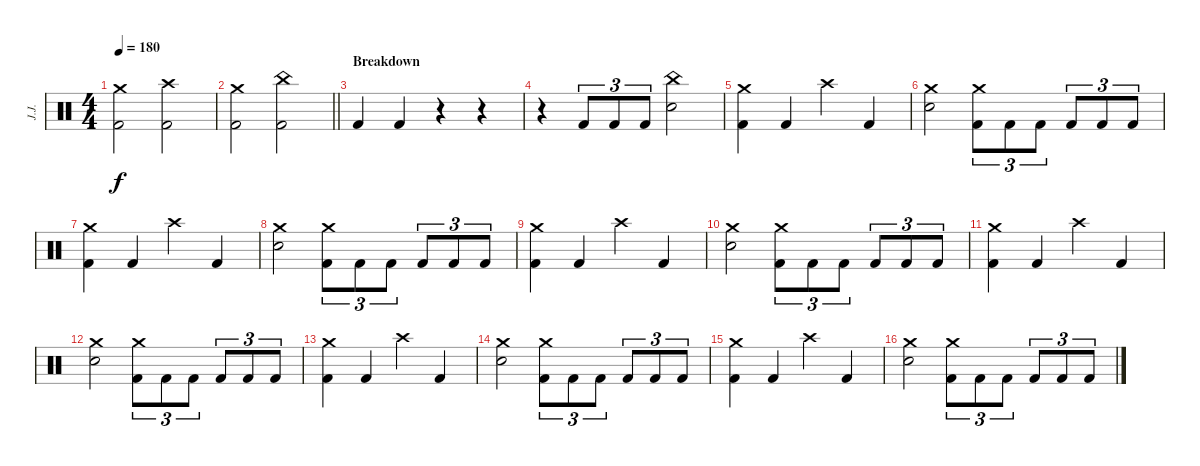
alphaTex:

\track ("J.J." "J.J.") {instrument percussion}
\staff {score}
\articulation defaults
\ts (4 4)
\tempo 180
\clef neutral
\ks c
("Crash medium (hit)" "Kick (hit) 2").2{dy f} ("Crash high (hit)" "Kick (hit) 2").2 |
\barLineRight lightlight
("Crash medium (hit)" "Kick (hit) 2").2 ("China (hit)" "Kick (hit) 2").2 |
\section ("" "Breakdown")
"Kick (hit) 2".4 "Kick (hit) 2".4 r.4 r.4 |
r.4 "Kick (hit) 2".8{tu (3 2)} "Kick (hit) 2".8{tu (3 2)} "Kick (hit) 2".8{tu (3 2)} ("China (hit)" "Electric Snare (hit)").2 |
("Crash medium (hit)" "Kick (hit) 2").4 "Kick (hit) 2".4 "Crash high (hit)".4 "Kick (hit) 2".4 |
("Crash medium (hit)" "Electric Snare (hit)").2 ("Crash medium (hit)" "Kick (hit) 2").8{tu (3 2)} "Kick (hit) 2".8{tu (3 2)} "Kick (hit) 2".8{tu (3 2)} "Kick (hit) 2".8{tu (3 2)} "Kick (hit) 2".8{tu (3 2)} "Kick (hit) 2".8{tu (3 2)} |
("Crash medium (hit)" "Kick (hit) 2").4 "Kick (hit) 2".4 "Crash high (hit)".4 "Kick (hit) 2".4 |
("Crash medium (hit)" "Electric Snare (hit)").2 ("Crash medium (hit)" "Kick (hit) 2").8{tu (3 2)} "Kick (hit) 2".8{tu (3 2)} "Kick (hit) 2".8{tu (3 2)} "Kick (hit) 2".8{tu (3 2)} "Kick (hit) 2".8{tu (3 2)} "Kick (hit) 2".8{tu (3 2)} |
("Crash medium (hit)" "Kick (hit) 2").4 "Kick (hit) 2".4 "Crash high (hit)".4 "Kick (hit) 2".4 |
("Crash medium (hit)" "Electric Snare (hit)").2 ("Crash medium (hit)" "Kick (hit) 2").8{tu (3 2)} "Kick (hit) 2".8{tu (3 2)} "Kick (hit) 2".8{tu (3 2)} "Kick (hit) 2".8{tu (3 2)} "Kick (hit) 2".8{tu (3 2)} "Kick (hit) 2".8{tu (3 2)} |
("Crash medium (hit)" "Kick (hit) 2").4 "Kick (hit) 2".4 "Crash high (hit)".4 "Kick (hit) 2".4 |
("Crash medium (hit)" "Electric Snare (hit)").2 ("Crash medium (hit)" "Kick (hit) 2").8{tu (3 2)} "Kick (hit) 2".8{tu (3 2)} "Kick (hit) 2".8{tu (3 2)} "Kick (hit) 2".8{tu (3 2)} "Kick (hit) 2".8{tu (3 2)} "Kick (hit) 2".8{tu (3 2)} |
("Crash medium (hit)" "Kick (hit) 2").4 "Kick (hit) 2".4 "Crash high (hit)".4 "Kick (hit) 2".4 |
("Crash medium (hit)" "Electric Snare (hit)").2 ("Crash medium (hit)" "Kick (hit) 2").8{tu (3 2)} "Kick (hit) 2".8{tu (3 2)} "Kick (hit) 2".8{tu (3 2)} "Kick (hit) 2".8{tu (3 2)} "Kick (hit) 2".8{tu (3 2)} "Kick (hit) 2".8{tu (3 2)} |
("Crash medium (hit)" "Kick (hit) 2").4 "Kick (hit) 2".4 "Crash high (hit)".4 "Kick (hit) 2".4 |
("Crash medium (hit)" "Electric Snare (hit)").2 ("Crash medium (hit)" "Kick (hit) 2").8{tu (3 2)} "Kick (hit) 2".8{tu (3 2)} "Kick (hit) 2".8{tu (3 2)} "Kick (hit) 2".8{tu (3 2)} "Kick (hit) 2".8{tu (3 2)} "Kick (hit) 2".8{tu (3 2)}
